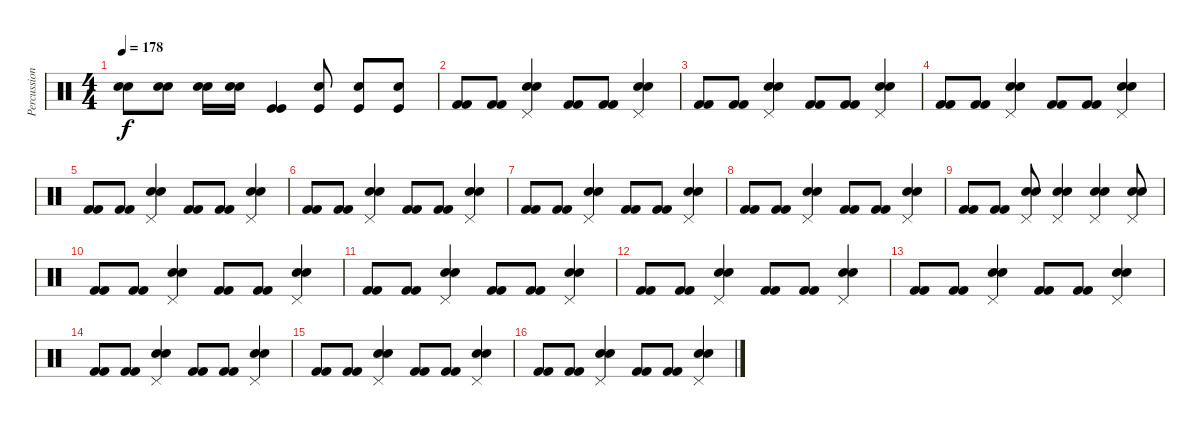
\track ("Percussion" "Percussion") {instrument percussion}
\staff {score}
\articulation defaults
\ts (4 4)
\tempo 178
\clef neutral
\ks c
("Snare (hit) 2" "Electric Snare (hit)").8{dy f} ("Snare (hit) 2" "Electric Snare (hit)").8 ("Electric Snare (hit)" "Electric Snare (hit)").16 ("Electric Snare (hit)" "Electric Snare (hit)").16 ("Kick (hit)" "Kick (hit)").4 ("Kick (hit)" "Snare (hit) 2").8 ("Kick (hit)" "Snare (hit) 2").8 ("Kick (hit)" "Snare (hit) 2").8 |
("Kick (hit) 2" "Kick (hit) 2").8 ("Kick (hit) 2" "Kick (hit) 2").8 ("Snare (hit) 2" "Electric Snare (hit)" "Pedal Hi-Hat (hit)").4 ("Kick (hit) 2" "Kick (hit) 2").8 ("Kick (hit) 2" "Kick (hit) 2").8 ("Snare (hit) 2" "Electric Snare (hit)" "Pedal Hi-Hat (hit)").4 |
("Kick (hit) 2" "Kick (hit) 2").8 ("Kick (hit) 2" "Kick (hit) 2").8 ("Snare (hit) 2" "Electric Snare (hit)" "Pedal Hi-Hat (hit)").4 ("Kick (hit) 2" "Kick (hit) 2").8 ("Kick (hit) 2" "Kick (hit) 2").8 ("Snare (hit) 2" "Electric Snare (hit)" "Pedal Hi-Hat (hit)").4 |
("Kick (hit) 2" "Kick (hit) 2").8 ("Kick (hit) 2" "Kick (hit) 2").8 ("Snare (hit) 2" "Electric Snare (hit)" "Pedal Hi-Hat (hit)").4 ("Kick (hit) 2" "Kick (hit) 2").8 ("Kick (hit) 2" "Kick (hit) 2").8 ("Snare (hit) 2" "Electric Snare (hit)" "Pedal Hi-Hat (hit)").4 |
("Kick (hit) 2" "Kick (hit) 2").8 ("Kick (hit) 2" "Kick (hit) 2").8 ("Snare (hit) 2" "Electric Snare (hit)" "Pedal Hi-Hat (hit)").4 ("Kick (hit) 2" "Kick (hit) 2").8 ("Kick (hit) 2" "Kick (hit) 2").8 ("Snare (hit) 2" "Electric Snare (hit)" "Pedal Hi-Hat (hit)").4 |
("Kick (hit) 2" "Kick (hit) 2").8 ("Kick (hit) 2" "Kick (hit) 2").8 ("Snare (hit) 2" "Electric Snare (hit)" "Pedal Hi-Hat (hit)").4 ("Kick (hit) 2" "Kick (hit) 2").8 ("Kick (hit) 2" "Kick (hit) 2").8 ("Snare (hit) 2" "Electric Snare (hit)" "Pedal Hi-Hat (hit)").4 |
("Kick (hit) 2" "Kick (hit) 2").8 ("Kick (hit) 2" "Kick (hit) 2").8 ("Snare (hit) 2" "Electric Snare (hit)" "Pedal Hi-Hat (hit)").4 ("Kick (hit) 2" "Kick (hit) 2").8 ("Kick (hit) 2" "Kick (hit) 2").8 ("Snare (hit) 2" "Electric Snare (hit)" "Pedal Hi-Hat (hit)").4 |
("Kick (hit) 2" "Kick (hit) 2").8 ("Kick (hit) 2" "Kick (hit) 2").8 ("Snare (hit) 2" "Electric Snare (hit)" "Pedal Hi-Hat (hit)").4 ("Kick (hit) 2" "Kick (hit) 2").8 ("Kick (hit) 2" "Kick (hit) 2").8 ("Snare (hit) 2" "Electric Snare (hit)" "Pedal Hi-Hat (hit)").4 |
("Kick (hit) 2" "Kick (hit) 2").8 ("Kick (hit) 2" "Kick (hit) 2").8 ("Snare (hit) 2" "Electric Snare (hit)" "Pedal Hi-Hat (hit)").8 ("Snare (hit) 2" "Electric Snare (hit)" "Pedal Hi-Hat (hit)").4 ("Snare (hit) 2" "Electric Snare (hit)" "Pedal Hi-Hat (hit)").4 ("Snare (hit) 2" "Electric Snare (hit)" "Pedal Hi-Hat (hit)").8 |
("Kick (hit) 2" "Kick (hit) 2").8 ("Kick (hit) 2" "Kick (hit) 2").8 ("Snare (hit) 2" "Electric Snare (hit)" "Pedal Hi-Hat (hit)").4 ("Kick (hit) 2" "Kick (hit) 2").8 ("Kick (hit) 2" "Kick (hit) 2").8 ("Snare (hit) 2" "Electric Snare (hit)" "Pedal Hi-Hat (hit)").4 |
("Kick (hit) 2" "Kick (hit) 2").8 ("Kick (hit) 2" "Kick (hit) 2").8 ("Snare (hit) 2" "Electric Snare (hit)" "Pedal Hi-Hat (hit)").4 ("Kick (hit) 2" "Kick (hit) 2").8 ("Kick (hit) 2" "Kick (hit) 2").8 ("Snare (hit) 2" "Electric Snare (hit)" "Pedal Hi-Hat (hit)").4 |
("Kick (hit) 2" "Kick (hit) 2").8 ("Kick (hit) 2" "Kick (hit) 2").8 ("Snare (hit) 2" "Electric Snare (hit)" "Pedal Hi-Hat (hit)").4 ("Kick (hit) 2" "Kick (hit) 2").8 ("Kick (hit) 2" "Kick (hit) 2").8 ("Snare (hit) 2" "Electric Snare (hit)" "Pedal Hi-Hat (hit)").4 |
("Kick (hit) 2" "Kick (hit) 2").8 ("Kick (hit) 2" "Kick (hit) 2").8 ("Snare (hit) 2" "Electric Snare (hit)" "Pedal Hi-Hat (hit)").4 ("Kick (hit) 2" "Kick (hit) 2").8 ("Kick (hit) 2" "Kick (hit) 2").8 ("Snare (hit) 2" "Electric Snare (hit)" "Pedal Hi-Hat (hit)").4 |
("Kick (hit) 2" "Kick (hit) 2").8 ("Kick (hit) 2" "Kick (hit) 2").8 ("Snare (hit) 2" "Electric Snare (hit)" "Pedal Hi-Hat (hit)").4 ("Kick (hit) 2" "Kick (hit) 2").8 ("Kick (hit) 2" "Kick (hit) 2").8 ("Snare (hit) 2" "Electric Snare (hit)" "Pedal Hi-Hat (hit)").4 |
("Kick (hit) 2" "Kick (hit) 2").8 ("Kick (hit) 2" "Kick (hit) 2").8 ("Snare (hit) 2" "Electric Snare (hit)" "Pedal Hi-Hat (hit)").4 ("Kick (hit) 2" "Kick (hit) 2").8 ("Kick (hit) 2" "Kick (hit) 2").8 ("Snare (hit) 2" "Electric Snare (hit)" "Pedal Hi-Hat (hit)").4 |
("Kick (hit) 2" "Kick (hit) 2").8 ("Kick (hit) 2" "Kick (hit) 2").8 ("Snare (hit) 2" "Electric Snare (hit)" "Pedal Hi-Hat (hit)").4 ("Kick (hit) 2" "Kick (hit) 2").8 ("Kick (hit) 2" "Kick (hit) 2").8 ("Snare (hit) 2" "Electric Snare (hit)" "Pedal Hi-Hat (hit)").4
